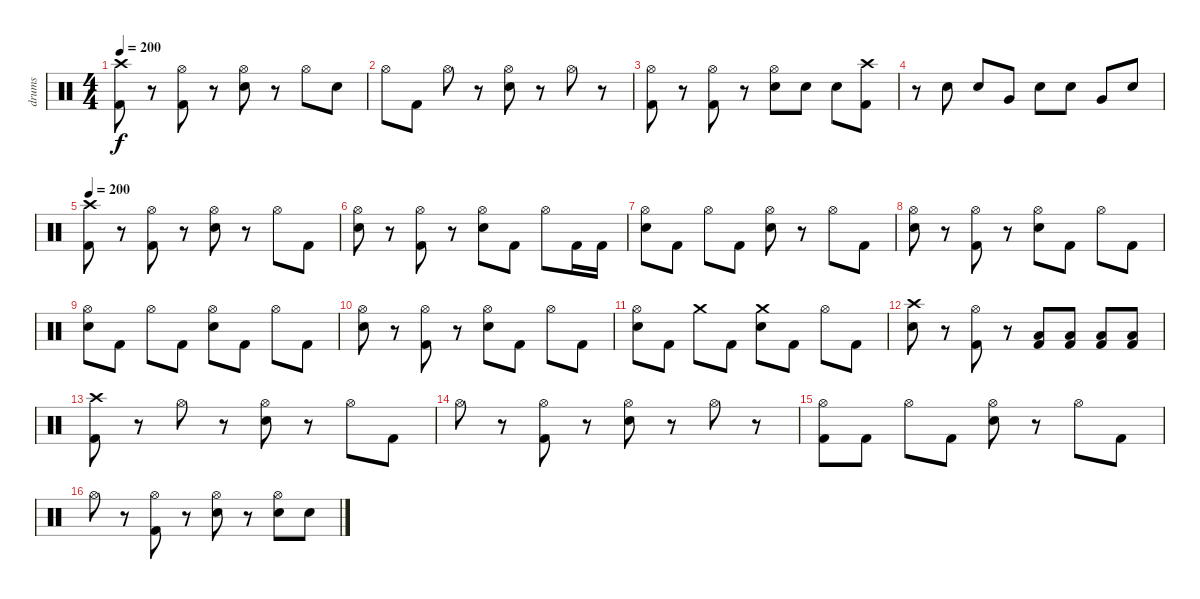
\track ("drums" "drums") {instrument percussion}
\staff {score}
\articulation defaults
\ts (4 4)
\tempo 200
\clef neutral
\ks c
("Crash high (hit)" "Kick (hit) 2").8{dy f} r.8 ("Hi-Hat (open)" "Kick (hit) 2").8 r.8 ("Hi-Hat (open)" "Snare (hit) 2").8 r.8 "Hi-Hat (open)".8 "Snare (hit) 2".8 |
"Hi-Hat (open)".8 "Kick (hit) 2".8 "Hi-Hat (open)".8 r.8 ("Hi-Hat (open)" "Snare (hit) 2").8 r.8 "Hi-Hat (open)".8 r.8 |
("Hi-Hat (open)" "Kick (hit) 2").8 r.8 ("Hi-Hat (open)" "Kick (hit) 2").8 r.8 ("Hi-Hat (open)" "Snare (hit) 2").8 "Snare (hit) 2".8 "Snare (hit) 2".8 ("Crash high (hit)" "Kick (hit) 2").8 |
r.8 "Snare (hit) 2".8 "Snare (hit) 2".8 "Very Low Tom (hit)".8 "Snare (hit) 2".8 "Snare (hit) 2".8 "Very Low Tom (hit)".8 "Snare (hit) 2".8 |
\tempo 200
("Crash high (hit)" "Kick (hit) 2").8 r.8 ("Hi-Hat (open)" "Kick (hit) 2").8 r.8 ("Hi-Hat (open)" "Snare (hit) 2").8 r.8 "Hi-Hat (open)".8 "Kick (hit) 2".8 |
("Hi-Hat (open)" "Snare (hit) 2").8 r.8 ("Hi-Hat (open)" "Kick (hit) 2").8 r.8 ("Hi-Hat (open)" "Snare (hit) 2").8 "Kick (hit) 2".8 "Hi-Hat (open)".8 "Kick (hit) 2".16 "Kick (hit) 2".16 |
("Hi-Hat (open)" "Snare (hit) 2").8 "Kick (hit) 2".8 "Hi-Hat (open)".8 "Kick (hit) 2".8 ("Hi-Hat (open)" "Snare (hit) 2").8 r.8 "Hi-Hat (open)".8 "Kick (hit) 2".8 |
("Hi-Hat (open)" "Snare (hit) 2").8 r.8 ("Hi-Hat (open)" "Kick (hit) 2").8 r.8 ("Hi-Hat (open)" "Snare (hit) 2").8 "Kick (hit) 2".8 "Hi-Hat (open)".8 "Kick (hit) 2".8 |
("Hi-Hat (open)" "Snare (hit) 2").8 "Kick (hit) 2".8 "Hi-Hat (open)".8 "Kick (hit) 2".8 ("Hi-Hat (open)" "Snare (hit) 2").8 "Kick (hit) 2".8 "Hi-Hat (open)".8 "Kick (hit) 2".8 |
("Hi-Hat (open)" "Snare (hit) 2").8 r.8 ("Hi-Hat (open)" "Kick (hit) 2").8 r.8 ("Hi-Hat (open)" "Snare (hit) 2").8 "Kick (hit) 2".8 "Hi-Hat (open)".8 "Kick (hit) 2".8 |
("Hi-Hat (open)" "Snare (hit) 2").8 "Kick (hit) 2".8 "Crash medium (hit)".8 "Kick (hit) 2".8 ("Crash medium (hit)" "Snare (hit) 2").8 "Kick (hit) 2".8 "Hi-Hat (open)".8 "Kick (hit) 2".8 |
("Crash high (hit)" "Snare (hit) 2").8 r.8 ("Hi-Hat (open)" "Kick (hit) 2").8 r.8 ("Kick (hit) 2" "Low Floor Tom (hit)").8 ("Kick (hit) 2" "Low Floor Tom (hit)").8 ("Kick (hit) 2" "Low Floor Tom (hit)").8 ("Kick (hit) 2" "Low Floor Tom (hit)").8 |
("Crash high (hit)" "Kick (hit) 2").8 r.8 "Hi-Hat (open)".8 r.8 ("Hi-Hat (open)" "Snare (hit) 2").8 r.8 "Hi-Hat (open)".8 "Kick (hit) 2".8 |
"Hi-Hat (open)".8 r.8 ("Hi-Hat (open)" "Kick (hit) 2").8 r.8 ("Hi-Hat (open)" "Snare (hit) 2").8 r.8 "Hi-Hat (open)".8 r.8 |
("Hi-Hat (open)" "Kick (hit) 2").8 "Kick (hit) 2".8 "Hi-Hat (open)".8 "Kick (hit) 2".8 ("Hi-Hat (open)" "Snare (hit) 2").8 r.8 "Hi-Hat (open)".8 "Kick (hit) 2".8 |
"Hi-Hat (open)".8 r.8 ("Hi-Hat (open)" "Kick (hit) 2").8 r.8 ("Hi-Hat (open)" "Snare (hit) 2").8 r.8 ("Hi-Hat (open)" "Snare (hit) 2").8 "Snare (hit) 2".8
